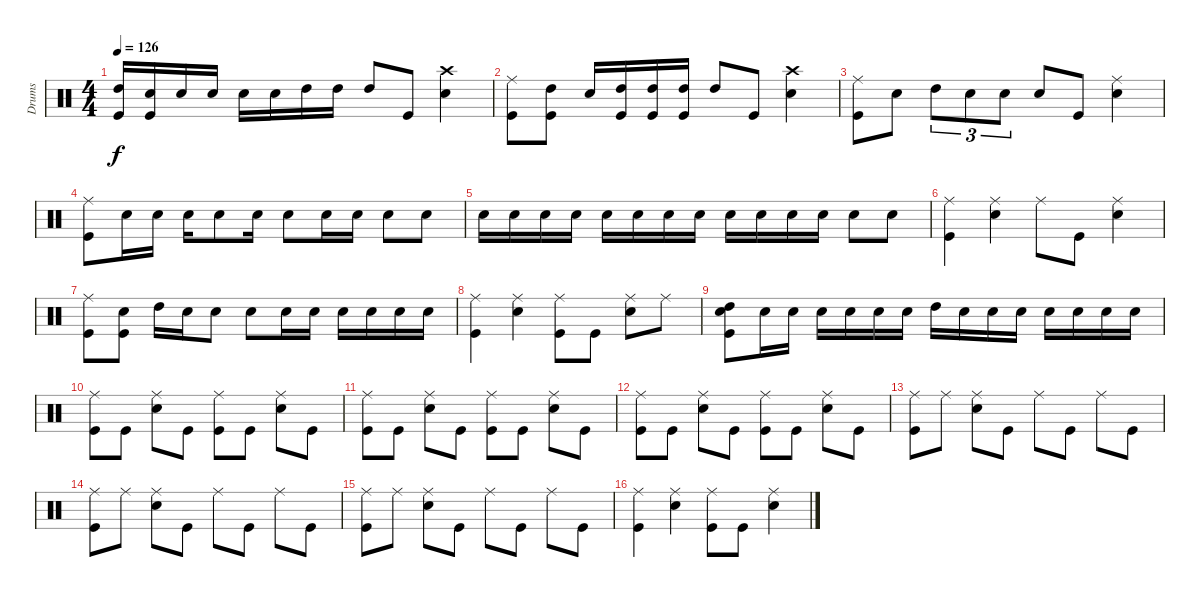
\track ("Drums" "Drums") {instrument percussion}
\staff {score}
\articulation defaults
\ts (4 4)
\tempo 126
\clef neutral
\ks c
("High Tom (hit)" "Kick (hit)").16{dy f} ("Electric Snare (hit)" "Kick (hit)").16 "Electric Snare (hit)".16 "Electric Snare (hit)".16 "Electric Snare (hit)".16 "Electric Snare (hit)".16 "High Tom (hit)".16 "High Tom (hit)".16 "High Tom (hit)".8 "Kick (hit)".8 ("Crash high (hit)" "Electric Snare (hit)").4 |
("Ride (middle)" "Kick (hit)").8 ("High Tom (hit)" "Kick (hit)").8 "Electric Snare (hit)".16 ("High Tom (hit)" "Kick (hit)").16 ("High Tom (hit)" "Kick (hit)").16 ("High Tom (hit)" "Kick (hit)").16 "High Tom (hit)".8 "Kick (hit)".8 ("Crash high (hit)" "Electric Snare (hit)").4 |
("Ride (middle)" "Kick (hit)").8 "Electric Snare (hit)".8 "High Tom (hit)".8{tu (3 2)} "Electric Snare (hit)".8{tu (3 2)} "Electric Snare (hit)".8{tu (3 2)} "Electric Snare (hit)".8 "Kick (hit)".8 ("Ride (middle)" "Electric Snare (hit)").4 |
("Ride (middle)" "Kick (hit)").8 "Electric Snare (hit)".16 "Electric Snare (hit)".16 "Electric Snare (hit)".16 "Electric Snare (hit)".8 "Electric Snare (hit)".16 "Electric Snare (hit)".8 "Electric Snare (hit)".16 "Electric Snare (hit)".16 "Electric Snare (hit)".8 "Electric Snare (hit)".8 |
"Electric Snare (hit)".16 "Electric Snare (hit)".16 "Electric Snare (hit)".16 "Electric Snare (hit)".16 "Electric Snare (hit)".16 "Electric Snare (hit)".16 "Electric Snare (hit)".16 "Electric Snare (hit)".16 "Electric Snare (hit)".16 "Electric Snare (hit)".16 "Electric Snare (hit)".16 "Electric Snare (hit)".16 "Electric Snare (hit)".8 "Electric Snare (hit)".8 |
("Ride (middle)" "Kick (hit)").4 ("Ride (middle)" "Electric Snare (hit)").4 "Ride (middle)".8 "Kick (hit)".8 ("Ride (middle)" "Electric Snare (hit)").4 |
("Ride (middle)" "Kick (hit)").8 ("Electric Snare (hit)" "Kick (hit)").8 "High Tom (hit)".16 "Electric Snare (hit)".16 "Electric Snare (hit)".8 "Electric Snare (hit)".8 "Electric Snare (hit)".16 "Electric Snare (hit)".16 "Electric Snare (hit)".16 "Electric Snare (hit)".16 "Electric Snare (hit)".16 "Electric Snare (hit)".16 |
("Ride (middle)" "Kick (hit)").4 ("Ride (middle)" "Electric Snare (hit)").4 ("Ride (middle)" "Kick (hit)").8 "Kick (hit)".8 ("Ride (middle)" "Electric Snare (hit)").8 "Ride (middle)".8 |
("High Tom (hit)" "Electric Snare (hit)" "Kick (hit)").8 "Electric Snare (hit)".16 "Electric Snare (hit)".16 "Electric Snare (hit)".16 "Electric Snare (hit)".16 "Electric Snare (hit)".16 "Electric Snare (hit)".16 "High Tom (hit)".16 "Electric Snare (hit)".16 "Electric Snare (hit)".16 "Electric Snare (hit)".16 "Electric Snare (hit)".16 "Electric Snare (hit)".16 "Electric Snare (hit)".16 "Electric Snare (hit)".16 |
("Ride (middle)" "Kick (hit)").8 "Kick (hit)".8 ("Ride (middle)" "Electric Snare (hit)").8 "Kick (hit)".8 ("Ride (middle)" "Kick (hit)").8 "Kick (hit)".8 ("Ride (middle)" "Electric Snare (hit)").8 "Kick (hit)".8 |
("Ride (middle)" "Kick (hit)").8 "Kick (hit)".8 ("Ride (middle)" "Electric Snare (hit)").8 "Kick (hit)".8 ("Ride (middle)" "Kick (hit)").8 "Kick (hit)".8 ("Ride (middle)" "Electric Snare (hit)").8 "Kick (hit)".8 |
("Ride (middle)" "Kick (hit)").8 "Kick (hit)".8 ("Ride (middle)" "Electric Snare (hit)").8 "Kick (hit)".8 ("Ride (middle)" "Kick (hit)").8 "Kick (hit)".8 ("Ride (middle)" "Electric Snare (hit)").8 "Kick (hit)".8 |
("Ride (middle)" "Kick (hit)").8 "Ride (middle)".8 ("Ride (middle)" "Electric Snare (hit)").8 "Kick (hit)".8 "Ride (middle)".8 "Kick (hit)".8 "Ride (middle)".8 "Kick (hit)".8 |
("Ride (middle)" "Kick (hit)").8 "Ride (middle)".8 ("Ride (middle)" "Electric Snare (hit)").8 "Kick (hit)".8 "Ride (middle)".8 "Kick (hit)".8 "Ride (middle)".8 "Kick (hit)".8 |
("Ride (middle)" "Kick (hit)").8 "Ride (middle)".8 ("Ride (middle)" "Electric Snare (hit)").8 "Kick (hit)".8 "Ride (middle)".8 "Kick (hit)".8 "Ride (middle)".8 "Kick (hit)".8 |
("Ride (middle)" "Kick (hit)").4 ("Ride (middle)" "Electric Snare (hit)").4 ("Ride (middle)" "Kick (hit)").8 "Kick (hit)".8 ("Ride (middle)" "Electric Snare (hit)").4
